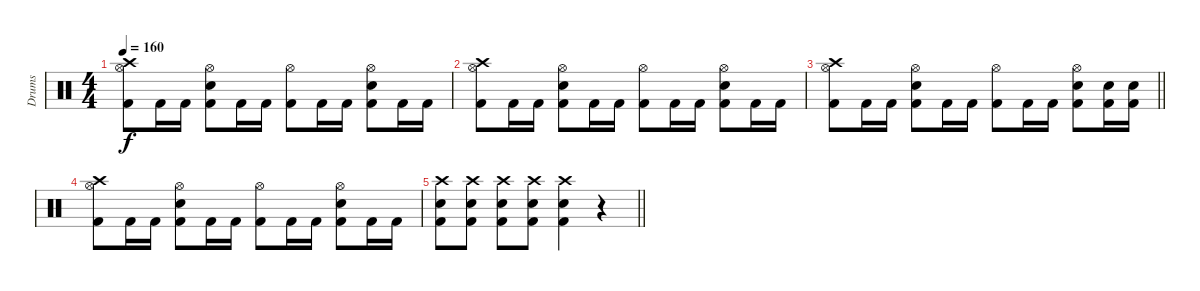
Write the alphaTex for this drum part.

\track ("Drums" "Drums") {instrument percussion}
\staff {score}
\articulation defaults
\ts (4 4)
\tempo 160
\clef neutral
\ks c
("Crash high (hit)" "Hi-Hat (open)" "Kick (hit) 2").8{dy f} "Kick (hit) 2".16 "Kick (hit) 2".16 ("Hi-Hat (open)" "Snare (hit) 2" "Kick (hit) 2").8 "Kick (hit) 2".16 "Kick (hit) 2".16 ("Hi-Hat (open)" "Kick (hit) 2").8 "Kick (hit) 2".16 "Kick (hit) 2".16 ("Hi-Hat (open)" "Snare (hit) 2" "Kick (hit) 2").8 "Kick (hit) 2".16 "Kick (hit) 2".16 |
("Crash high (hit)" "Hi-Hat (open)" "Kick (hit) 2").8 "Kick (hit) 2".16 "Kick (hit) 2".16 ("Hi-Hat (open)" "Snare (hit) 2" "Kick (hit) 2").8 "Kick (hit) 2".16 "Kick (hit) 2".16 ("Hi-Hat (open)" "Kick (hit) 2").8 "Kick (hit) 2".16 "Kick (hit) 2".16 ("Hi-Hat (open)" "Snare (hit) 2" "Kick (hit) 2").8 "Kick (hit) 2".16 "Kick (hit) 2".16 |
\barLineRight lightlight
("Crash high (hit)" "Hi-Hat (open)" "Kick (hit) 2").8 "Kick (hit) 2".16 "Kick (hit) 2".16 ("Hi-Hat (open)" "Snare (hit) 2" "Kick (hit) 2").8 "Kick (hit) 2".16 "Kick (hit) 2".16 ("Hi-Hat (open)" "Kick (hit) 2").8 "Kick (hit) 2".16 "Kick (hit) 2".16 ("Hi-Hat (open)" "Snare (hit) 2" "Kick (hit) 2").8 ("Snare (hit) 2" "Kick (hit) 2").16 ("Snare (hit) 2" "Kick (hit) 2").16 |
("Crash high (hit)" "Hi-Hat (open)" "Kick (hit) 2").8 "Kick (hit) 2".16 "Kick (hit) 2".16 ("Hi-Hat (open)" "Snare (hit) 2" "Kick (hit) 2").8 "Kick (hit) 2".16 "Kick (hit) 2".16 ("Hi-Hat (open)" "Kick (hit) 2").8 "Kick (hit) 2".16 "Kick (hit) 2".16 ("Hi-Hat (open)" "Snare (hit) 2" "Kick (hit) 2").8 "Kick (hit) 2".16 "Kick (hit) 2".16 |
\barLineRight lightlight
("Crash high (hit)" "Snare (hit) 2" "Kick (hit) 2").8 ("Crash high (hit)" "Snare (hit) 2" "Kick (hit) 2").8 ("Crash high (hit)" "Snare (hit) 2" "Kick (hit) 2").8 ("Crash high (hit)" "Snare (hit) 2" "Kick (hit) 2").8 ("Crash high (hit)" "Snare (hit) 2" "Kick (hit) 2").4 r.4
